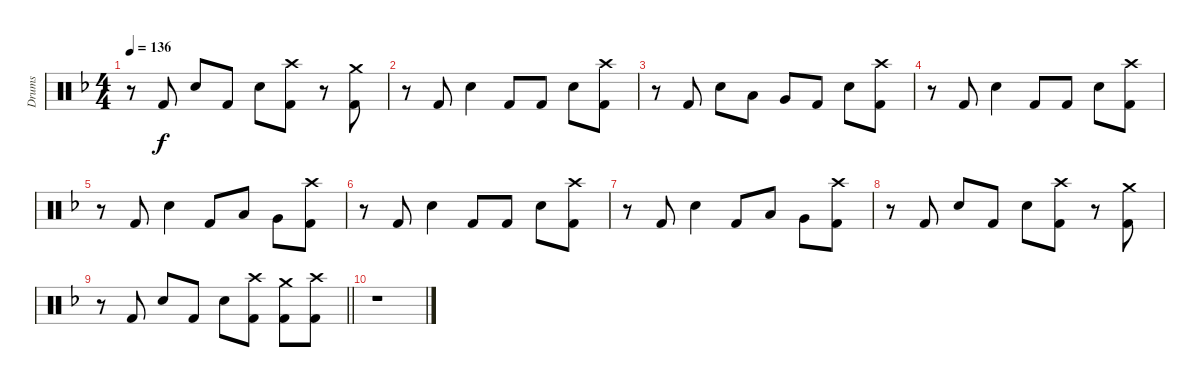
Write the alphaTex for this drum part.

\track ("Drums" "Drums") {instrument percussion}
\staff {score}
\articulation defaults
\ts (4 4)
\tempo 136
\clef neutral
\ks dminor
r.8{dy f} "Kick (hit) 2".8 "Snare (hit) 2".8 "Kick (hit) 2".8 "Snare (hit) 2".8 ("Crash high (hit)" "Kick (hit) 2").8 r.8 ("Crash medium (hit)" "Kick (hit) 2").8 |
r.8 "Kick (hit) 2".8 "Snare (hit) 2".4 "Kick (hit) 2".8 "Kick (hit) 2".8 "Snare (hit) 2".8 ("Crash high (hit)" "Kick (hit) 2").8 |
r.8 "Kick (hit) 2".8 "Snare (hit) 2".8 "Low Tom (hit)".8 "Very Low Tom (hit)".8 "Kick (hit) 2".8 "Snare (hit) 2".8 ("Crash high (hit)" "Kick (hit) 2").8 |
r.8 "Kick (hit) 2".8 "Snare (hit) 2".4 "Kick (hit) 2".8 "Kick (hit) 2".8 "Snare (hit) 2".8 ("Crash high (hit)" "Kick (hit) 2").8 |
r.8 "Kick (hit) 2".8 "Snare (hit) 2".4 "Kick (hit) 2".8 "Low Tom (hit)".8 "Very Low Tom (hit)".8 ("Crash high (hit)" "Kick (hit) 2").8 |
r.8 "Kick (hit) 2".8 "Snare (hit) 2".4 "Kick (hit) 2".8 "Kick (hit) 2".8 "Snare (hit) 2".8 ("Crash high (hit)" "Kick (hit) 2").8 |
r.8 "Kick (hit) 2".8 "Snare (hit) 2".4 "Kick (hit) 2".8 "Low Tom (hit)".8 "Very Low Tom (hit)".8 ("Crash high (hit)" "Kick (hit) 2").8 |
r.8 "Kick (hit) 2".8 "Snare (hit) 2".8 "Kick (hit) 2".8 "Snare (hit) 2".8 ("Crash high (hit)" "Kick (hit) 2").8 r.8 ("Crash medium (hit)" "Kick (hit) 2").8 |
\barLineRight lightlight
r.8 "Kick (hit) 2".8 "Snare (hit) 2".8 "Kick (hit) 2".8 "Snare (hit) 2".8 ("Crash high (hit)" "Kick (hit) 2").8 ("Crash medium (hit)" "Kick (hit) 2").8 ("Crash high (hit)" "Kick (hit) 2").8 |
r.1
